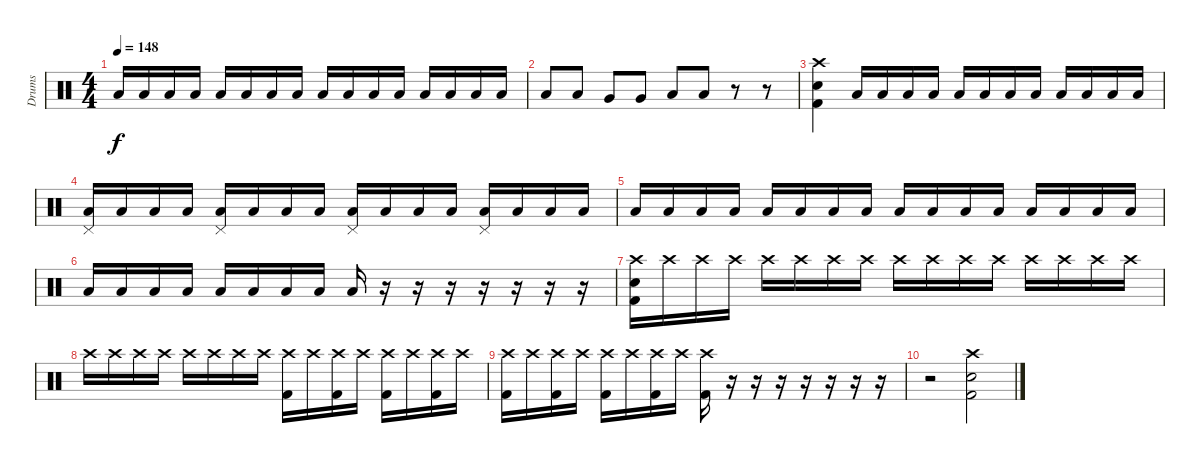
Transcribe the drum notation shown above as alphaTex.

\track ("Drums" "Drums") {instrument percussion}
\staff {score}
\articulation defaults
\ts (4 4)
\tempo 148
\clef neutral
\ks c "Low Tom (hit)".16{dy f} "Low Tom (hit)".16 "Low Tom (hit)".16 "Low Tom (hit)".16 "Low Tom (hit)".16 "Low Tom (hit)".16 "Low Tom (hit)".16 "Low Tom (hit)".16 "Low Tom (hit)".16 "Low Tom (hit)".16 "Low Tom (hit)".16 "Low Tom (hit)".16 "Low Tom (hit)".16 "Low Tom (hit)".16 "Low Tom (hit)".16 "Low Tom (hit)".16
|
"Low Tom (hit)".8 "Low Tom (hit)".8 "Very Low Tom (hit)".8 "Very Low Tom (hit)".8 "Low Floor Tom (hit)".8 "Low Floor Tom (hit)".8 r.8 r.8 |
("Crash high (hit)" "Snare (hit) 2" "Kick (hit) 2").4 "Low Tom (hit)".16 "Low Tom (hit)".16 "Low Tom (hit)".16 "Low Tom (hit)".16 "Low Tom (hit)".16 "Low Tom (hit)".16 "Low Tom (hit)".16 "Low Tom (hit)".16 "Low Tom (hit)".16 "Low Tom (hit)".16 "Low Tom (hit)".16 "Low Tom (hit)".16 |
("Pedal Hi-Hat (hit)" "Low Tom (hit)").16 "Low Tom (hit)".16 "Low Tom (hit)".16 "Low Tom (hit)".16 ("Pedal Hi-Hat (hit)" "Low Tom (hit)").16 "Low Tom (hit)".16 "Low Tom (hit)".16 "Low Tom (hit)".16 ("Pedal Hi-Hat (hit)" "Low Tom (hit)").16 "Low Tom (hit)".16 "Low Tom (hit)".16 "Low Tom (hit)".16 ("Pedal Hi-Hat (hit)" "Low Tom (hit)").16 "Low Tom (hit)".16 "Low Tom (hit)".16 "Low Tom (hit)".16 |
"Low Tom (hit)".16 "Low Tom (hit)".16 "Low Tom (hit)".16 "Low Tom (hit)".16 "Low Tom (hit)".16 "Low Tom (hit)".16 "Low Tom (hit)".16 "Low Tom (hit)".16 "Low Tom (hit)".16 "Low Tom (hit)".16 "Low Tom (hit)".16 "Low Tom (hit)".16 "Low Tom (hit)".16 "Low Tom (hit)".16 "Low Tom (hit)".16 "Low Tom (hit)".16 |
"Low Tom (hit)".16 "Low Tom (hit)".16 "Low Tom (hit)".16 "Low Tom (hit)".16 "Low Tom (hit)".16 "Low Tom (hit)".16 "Low Tom (hit)".16 "Low Tom (hit)".16 "Low Tom (hit)".16 r.16 r.16 r.16 r.16 r.16 r.16 r.16 |
("Crash high (hit)" "Snare (hit) 2" "Kick (hit) 2").16 "Crash high (hit)".16 "Crash high (hit)".16 "Crash high (hit)".16 "Crash high (hit)".16 "Crash high (hit)".16 "Crash high (hit)".16 "Crash high (hit)".16 "Crash high (hit)".16 "Crash high (hit)".16 "Crash high (hit)".16 "Crash high (hit)".16 "Crash high (hit)".16 "Crash high (hit)".16 "Crash high (hit)".16 "Crash high (hit)".16 |
"Crash high (hit)".16 "Crash high (hit)".16 "Crash high (hit)".16 "Crash high (hit)".16 "Crash high (hit)".16 "Crash high (hit)".16 "Crash high (hit)".16 "Crash high (hit)".16 ("Crash high (hit)" "Kick (hit) 2").16 "Crash high (hit)".16 ("Crash high (hit)" "Kick (hit) 2").16 "Crash high (hit)".16 ("Crash high (hit)" "Kick (hit) 2").16 "Crash high (hit)".16 ("Crash high (hit)" "Kick (hit) 2").16 "Crash high (hit)".16 |
("Crash high (hit)" "Kick (hit) 2").16 "Crash high (hit)".16 ("Crash high (hit)" "Kick (hit) 2").16 "Crash high (hit)".16 ("Crash high (hit)" "Kick (hit) 2").16 "Crash high (hit)".16 ("Crash high (hit)" "Kick (hit) 2").16 "Crash high (hit)".16 ("Crash high (hit)" "Kick (hit) 2").16 r.16 r.16 r.16 r.16 r.16 r.16 r.16 |
r.2 ("Crash high (hit)" "Snare (hit) 2" "Kick (hit) 2").2
